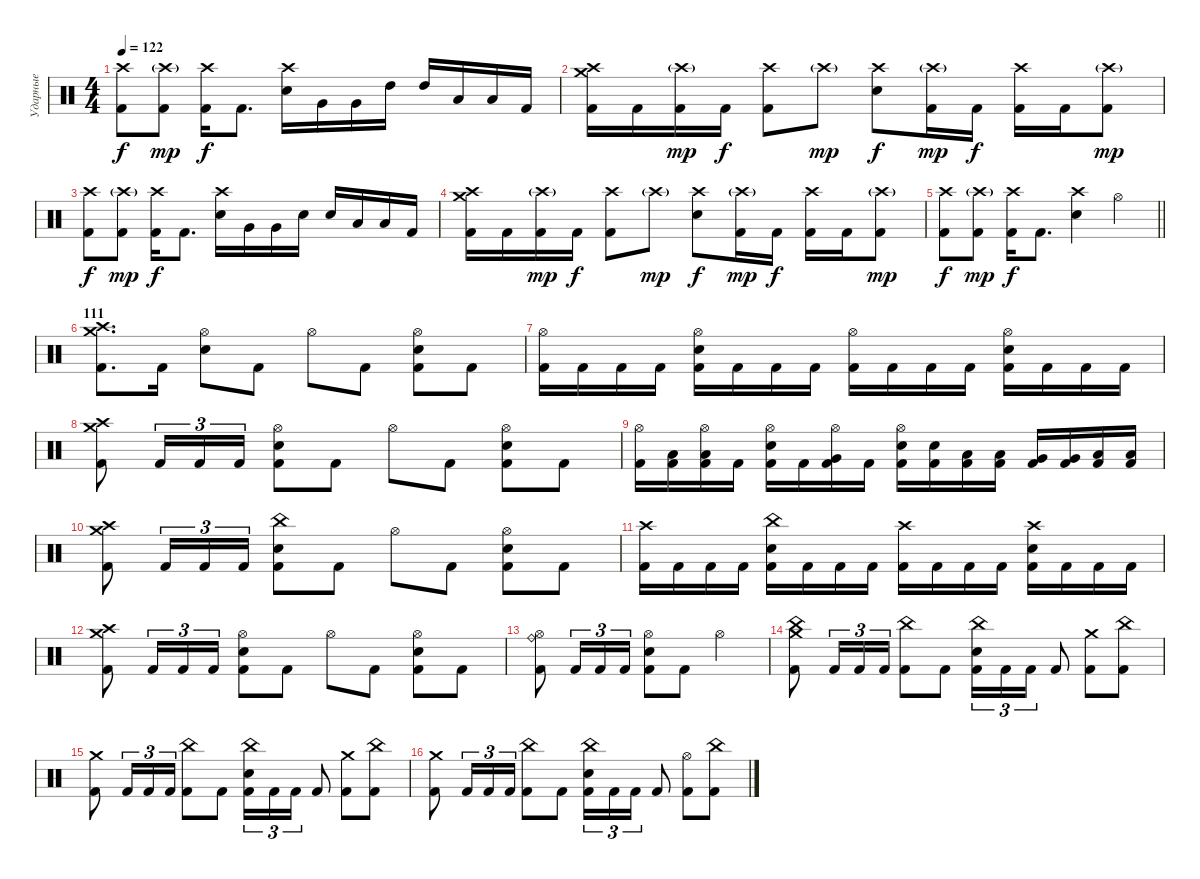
\track ("Ударные" "Ударные") {instrument percussion}
\staff {score}
\articulation defaults
\ts (4 4)
\tempo 122
\clef neutral
\ks c
("Crash high (hit)" "Kick (hit) 2").8{dy f} ("Crash high (hit)"{g} "Kick (hit) 2").8{dy mp} ("Crash high (hit)" "Kick (hit) 2").16{dy f} "Kick (hit) 2".8{d} ("Crash high (hit)" "Electric Snare (hit)").16 "Very Low Tom (hit)".16 "Very Low Tom (hit)".16 "High Tom (hit)".16 "High Tom (hit)".16 "Low Tom (hit)".16 "Low Tom (hit)".16 "Kick (hit) 2".16 |
("Crash medium (hit)" "Crash high (hit)" "Kick (hit) 2").16 "Kick (hit) 2".16 ("Crash high (hit)"{g} "Kick (hit) 2").16{dy mp} "Kick (hit) 2".16{dy f} ("Crash high (hit)" "Kick (hit) 2").8 "Crash high (hit)"{g}.8{dy mp} ("Crash high (hit)" "Electric Snare (hit)").8{dy f} ("Crash high (hit)"{g} "Kick (hit) 2").16{dy mp} "Kick (hit) 2".16{dy f} ("Crash high (hit)" "Kick (hit) 2").16 "Kick (hit) 2".16 ("Crash high (hit)"{g} "Kick (hit) 2").8{dy mp} |
("Crash high (hit)" "Kick (hit) 2").8{dy f} ("Crash high (hit)"{g} "Kick (hit) 2").8{dy mp} ("Crash high (hit)" "Kick (hit) 2").16{dy f} "Kick (hit) 2".8{d} ("Crash high (hit)" "Electric Snare (hit)").16 "Very Low Tom (hit)".16 "Very Low Tom (hit)".16 "Electric Snare (hit)".16 "Electric Snare (hit)".16 "Low Tom (hit)".16 "Low Tom (hit)".16 "Kick (hit) 2".16 |
("Crash medium (hit)" "Crash high (hit)" "Kick (hit) 2").16 "Kick (hit) 2".16 ("Crash high (hit)"{g} "Kick (hit) 2").16{dy mp} "Kick (hit) 2".16{dy f} ("Crash high (hit)" "Kick (hit) 2").8 "Crash high (hit)"{g}.8{dy mp} ("Crash high (hit)" "Electric Snare (hit)").8{dy f} ("Crash high (hit)"{g} "Kick (hit) 2").16{dy mp} "Kick (hit) 2".16{dy f} ("Crash high (hit)" "Kick (hit) 2").16 "Kick (hit) 2".16 ("Crash high (hit)"{g} "Kick (hit) 2").8{dy mp} |
\barLineRight lightlight
("Crash high (hit)" "Kick (hit) 2").8{dy f} ("Crash high (hit)"{g} "Kick (hit) 2").8{dy mp} ("Crash high (hit)" "Kick (hit) 2").16{dy f} "Kick (hit) 2".8{d} ("Crash high (hit)" "Electric Snare (hit)").4 "Hi-Hat (open)".4 |
\section ("" "111")
("Crash medium (hit)" "Crash high (hit)" "Kick (hit) 2").8{d} "Kick (hit) 2".16 ("Hi-Hat (open)" "Electric Snare (hit)").8 "Kick (hit) 2".8 "Hi-Hat (open)".8 "Kick (hit) 2".8 ("Hi-Hat (open)" "Electric Snare (hit)" "Kick (hit) 2").8 "Kick (hit) 2".8 |
("Hi-Hat (open)" "Kick (hit) 2").16 "Kick (hit) 2".16 "Kick (hit) 2".16 "Kick (hit) 2".16 ("Hi-Hat (open)" "Electric Snare (hit)" "Kick (hit) 2").16 "Kick (hit) 2".16 "Kick (hit) 2".16 "Kick (hit) 2".16 ("Hi-Hat (open)" "Kick (hit) 2").16 "Kick (hit) 2".16 "Kick (hit) 2".16 "Kick (hit) 2".16 ("Hi-Hat (open)" "Electric Snare (hit)" "Kick (hit) 2").16 "Kick (hit) 2".16 "Kick (hit) 2".16 "Kick (hit) 2".16 |
("Crash medium (hit)" "Crash high (hit)" "Kick (hit) 2").8 "Kick (hit) 2".16{tu (3 2)} "Kick (hit) 2".16{tu (3 2)} "Kick (hit) 2".16{tu (3 2)} ("Hi-Hat (open)" "Electric Snare (hit)" "Kick (hit) 2").8 "Kick (hit) 2".8 "Hi-Hat (open)".8 "Kick (hit) 2".8 ("Hi-Hat (open)" "Electric Snare (hit)" "Kick (hit) 2").8 "Kick (hit) 2".8 |
("Hi-Hat (open)" "Kick (hit) 2").16 ("Low Tom (hit)" "Kick (hit) 2").16 ("Hi-Hat (open)" "Low Tom (hit)" "Kick (hit) 2").16 "Kick (hit) 2".16 ("Hi-Hat (open)" "Electric Snare (hit)" "Kick (hit) 2").16 "Kick (hit) 2".16 ("Hi-Hat (open)" "Very Low Tom (hit)" "Kick (hit) 2").16 "Kick (hit) 2".16 ("Hi-Hat (open)" "Electric Snare (hit)" "Kick (hit) 2").16 ("Electric Snare (hit)" "Kick (hit) 2").16 ("Low Floor Tom (hit)" "Kick (hit) 2").16 ("Low Floor Tom (hit)" "Kick (hit) 2").16 ("Very Low Tom (hit)" "Kick (hit) 2").16 ("Very Low Tom (hit)" "Kick (hit) 2").16 ("Low Tom (hit)" "Kick (hit) 2").16 ("Low Tom (hit)" "Kick (hit) 2").16 |
("Crash medium (hit)" "Crash high (hit)" "Kick (hit) 2").8 "Kick (hit) 2".16{tu (3 2)} "Kick (hit) 2".16{tu (3 2)} "Kick (hit) 2".16{tu (3 2)} ("China (hit)" "Electric Snare (hit)" "Kick (hit) 2").8 "Kick (hit) 2".8 "Hi-Hat (open)".8 "Kick (hit) 2".8 ("Hi-Hat (open)" "Electric Snare (hit)" "Kick (hit) 2").8 "Kick (hit) 2".8 |
("Crash high (hit)" "Kick (hit) 2").16 "Kick (hit) 2".16 "Kick (hit) 2".16 "Kick (hit) 2".16 ("China (hit)" "Electric Snare (hit)" "Kick (hit) 2").16 "Kick (hit) 2".16 "Kick (hit) 2".16 "Kick (hit) 2".16 ("Crash high (hit)" "Kick (hit) 2").16 "Kick (hit) 2".16 "Kick (hit) 2".16 "Kick (hit) 2".16 ("Crash high (hit)" "Electric Snare (hit)" "Kick (hit) 2").16 "Kick (hit) 2".16 "Kick (hit) 2".16 "Kick (hit) 2".16 |
("Crash medium (hit)" "Crash high (hit)" "Kick (hit) 2").8 "Kick (hit) 2".16{tu (3 2)} "Kick (hit) 2".16{tu (3 2)} "Kick (hit) 2".16{tu (3 2)} ("Hi-Hat (open)" "Electric Snare (hit)" "Kick (hit) 2").8 "Kick (hit) 2".8 "Hi-Hat (open)".8 "Kick (hit) 2".8 ("Hi-Hat (open)" "Electric Snare (hit)" "Kick (hit) 2").8 "Kick (hit) 2".8 |
("Hi-Hat (open)" "Ride (bell)" "Kick (hit) 2").8 "Kick (hit) 2".16{tu (3 2)} "Kick (hit) 2".16{tu (3 2)} "Kick (hit) 2".16{tu (3 2)} ("Hi-Hat (open)" "Electric Snare (hit)" "Kick (hit) 2").8 "Kick (hit) 2".8 "Hi-Hat (open)".2 |
("China (hit)" "Crash medium (hit)" "Kick (hit) 2").8 "Kick (hit) 2".16{tu (3 2)} "Kick (hit) 2".16{tu (3 2)} "Kick (hit) 2".16{tu (3 2)} ("China (hit)" "Kick (hit) 2").8 "Kick (hit) 2".8 ("China (hit)" "Electric Snare (hit)" "Kick (hit) 2").16{tu (3 2)} "Kick (hit) 2".16{tu (3 2)} "Kick (hit) 2".16{tu (3 2)} "Kick (hit) 2".8 ("Crash medium (hit)" "Kick (hit) 2").8 ("China (hit)" "Kick (hit) 2").8 |
("Crash medium (hit)" "Kick (hit) 2").8 "Kick (hit) 2".16{tu (3 2)} "Kick (hit) 2".16{tu (3 2)} "Kick (hit) 2".16{tu (3 2)} ("China (hit)" "Kick (hit) 2").8 "Kick (hit) 2".8 ("China (hit)" "Electric Snare (hit)" "Kick (hit) 2").16{tu (3 2)} "Kick (hit) 2".16{tu (3 2)} "Kick (hit) 2".16{tu (3 2)} "Kick (hit) 2".8 ("Crash medium (hit)" "Kick (hit) 2").8 ("China (hit)" "Kick (hit) 2").8 |
("Crash medium (hit)" "Kick (hit) 2").8 "Kick (hit) 2".16{tu (3 2)} "Kick (hit) 2".16{tu (3 2)} "Kick (hit) 2".16{tu (3 2)} ("China (hit)" "Kick (hit) 2").8 "Kick (hit) 2".8 ("China (hit)" "Electric Snare (hit)" "Kick (hit) 2").16{tu (3 2)} "Kick (hit) 2".16{tu (3 2)} "Kick (hit) 2".16{tu (3 2)} "Kick (hit) 2".8 ("Hi-Hat (open)" "Kick (hit) 2").8 ("China (hit)" "Kick (hit) 2").8
